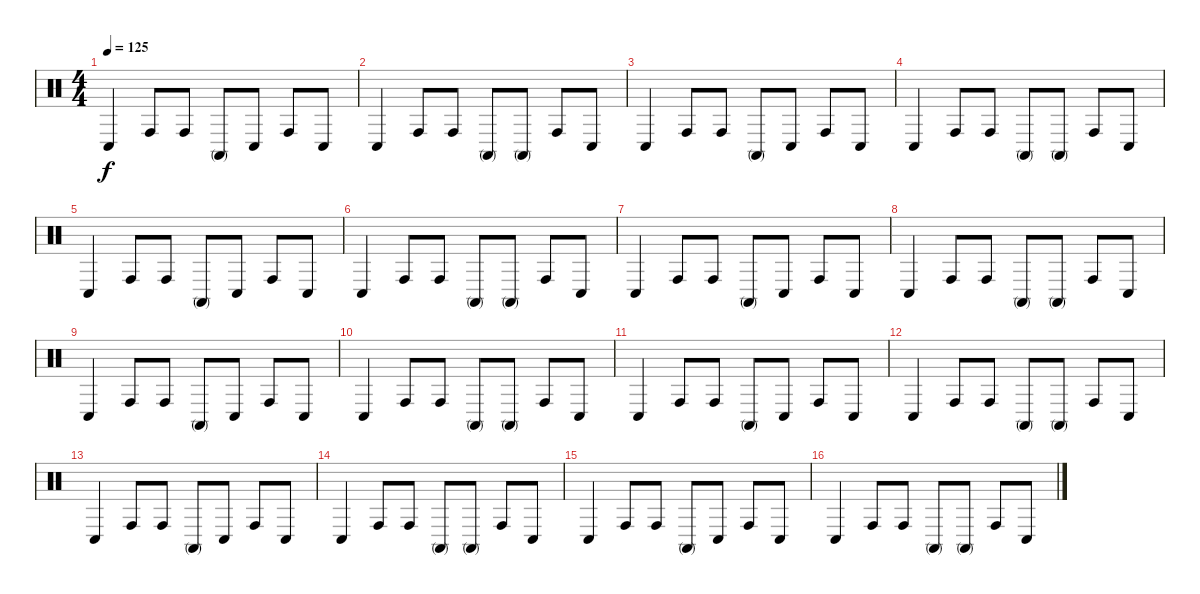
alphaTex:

\track "" {instrument percussion}
\staff {score}
\articulation defaults
\ts (4 4)
\tempo 125
\clef neutral
\ks c "Conga low (hit)".4{dy f} "Conga high (hit)".8 "Conga high (hit)".8 "Conga high (mute)".8 "Conga low (hit)".8 "Conga high (hit)".8 "Conga low (hit)".8
|
"Conga low (hit)".4 "Conga high (hit)".8 "Conga high (hit)".8 "Conga high (mute)".8 "Conga high (mute)".8 "Conga high (hit)".8 "Conga low (hit)".8 |
"Conga low (hit)".4 "Conga high (hit)".8 "Conga high (hit)".8 "Conga high (mute)".8 "Conga low (hit)".8 "Conga high (hit)".8 "Conga low (hit)".8 |
"Conga low (hit)".4 "Conga high (hit)".8 "Conga high (hit)".8 "Conga high (mute)".8 "Conga high (mute)".8 "Conga high (hit)".8 "Conga low (hit)".8 |
"Conga low (hit)".4 "Conga high (hit)".8 "Conga high (hit)".8 "Conga high (mute)".8 "Conga low (hit)".8 "Conga high (hit)".8 "Conga low (hit)".8 |
"Conga low (hit)".4 "Conga high (hit)".8 "Conga high (hit)".8 "Conga high (mute)".8 "Conga high (mute)".8 "Conga high (hit)".8 "Conga low (hit)".8 |
"Conga low (hit)".4 "Conga high (hit)".8 "Conga high (hit)".8 "Conga high (mute)".8 "Conga low (hit)".8 "Conga high (hit)".8 "Conga low (hit)".8 |
"Conga low (hit)".4 "Conga high (hit)".8 "Conga high (hit)".8 "Conga high (mute)".8 "Conga high (mute)".8 "Conga high (hit)".8 "Conga low (hit)".8 |
"Conga low (hit)".4 "Conga high (hit)".8 "Conga high (hit)".8 "Conga high (mute)".8 "Conga low (hit)".8 "Conga high (hit)".8 "Conga low (hit)".8 |
"Conga low (hit)".4 "Conga high (hit)".8 "Conga high (hit)".8 "Conga high (mute)".8 "Conga high (mute)".8 "Conga high (hit)".8 "Conga low (hit)".8 |
"Conga low (hit)".4 "Conga high (hit)".8 "Conga high (hit)".8 "Conga high (mute)".8 "Conga low (hit)".8 "Conga high (hit)".8 "Conga low (hit)".8 |
"Conga low (hit)".4 "Conga high (hit)".8 "Conga high (hit)".8 "Conga high (mute)".8 "Conga high (mute)".8 "Conga high (hit)".8 "Conga low (hit)".8 |
"Conga low (hit)".4 "Conga high (hit)".8 "Conga high (hit)".8 "Conga high (mute)".8 "Conga low (hit)".8 "Conga high (hit)".8 "Conga low (hit)".8 |
"Conga low (hit)".4 "Conga high (hit)".8 "Conga high (hit)".8 "Conga high (mute)".8 "Conga high (mute)".8 "Conga high (hit)".8 "Conga low (hit)".8 |
"Conga low (hit)".4 "Conga high (hit)".8 "Conga high (hit)".8 "Conga high (mute)".8 "Conga low (hit)".8 "Conga high (hit)".8 "Conga low (hit)".8 |
"Conga low (hit)".4 "Conga high (hit)".8 "Conga high (hit)".8 "Conga high (mute)".8 "Conga high (mute)".8 "Conga high (hit)".8 "Conga low (hit)".8
